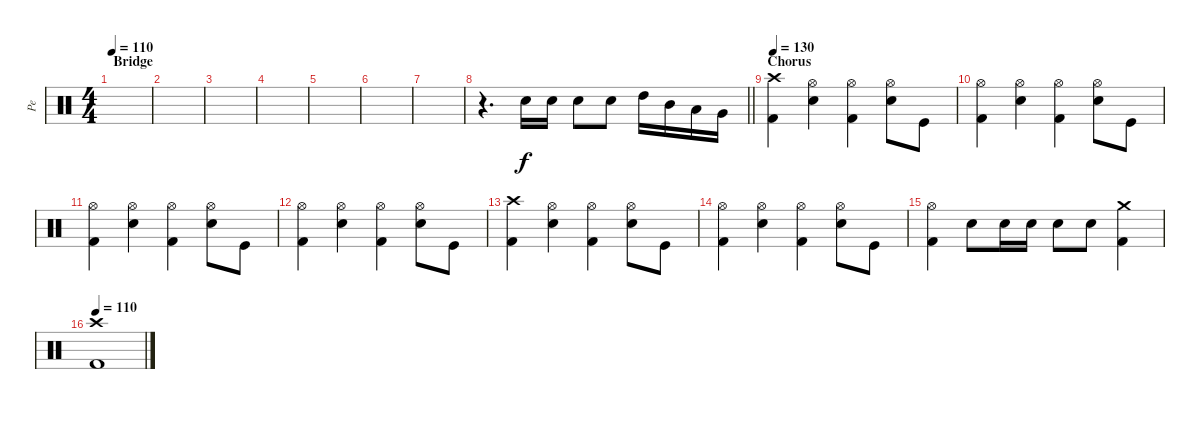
\track ("Pe" "Pe") {instrument percussion}
\staff {score}
\articulation defaults
\ts (4 4)
\section ("" "Bridge")
\tempo 110
\clef neutral
\ks c
|
|
|
|
|
|
|
\barLineRight lightlight
r.4{d volume 13} "Electric Snare (hit)".16 "Electric Snare (hit)".16 "Electric Snare (hit)".8 "Electric Snare (hit)".8 "High Tom (hit)".16 "Mid Tom (hit)".16 "Low Tom (hit)".16 "Very Low Tom (hit)".16 |
\section ("" "Chorus")
\tempo 130
("Kick (hit) 2" "Crash high (hit)").4 ("Electric Snare (hit)" "Hi-Hat (open)").4 ("Kick (hit) 2" "Hi-Hat (open)").4 ("Electric Snare (hit)" "Hi-Hat (open)").8 "Kick (hit)".8 |
("Kick (hit) 2" "Hi-Hat (open)").4 ("Electric Snare (hit)" "Hi-Hat (open)").4 ("Kick (hit) 2" "Hi-Hat (open)").4 ("Electric Snare (hit)" "Hi-Hat (open)").8 "Kick (hit)".8 |
("Kick (hit) 2" "Hi-Hat (open)").4 ("Electric Snare (hit)" "Hi-Hat (open)").4 ("Kick (hit) 2" "Hi-Hat (open)").4 ("Electric Snare (hit)" "Hi-Hat (open)").8 "Kick (hit)".8 |
("Kick (hit) 2" "Hi-Hat (open)").4 ("Electric Snare (hit)" "Hi-Hat (open)").4 ("Kick (hit) 2" "Hi-Hat (open)").4 ("Electric Snare (hit)" "Hi-Hat (open)").8 "Kick (hit)".8 |
("Kick (hit) 2" "Crash high (hit)").4 ("Electric Snare (hit)" "Hi-Hat (open)").4 ("Kick (hit) 2" "Hi-Hat (open)").4 ("Electric Snare (hit)" "Hi-Hat (open)").8 "Kick (hit)".8 |
("Kick (hit) 2" "Hi-Hat (open)").4 ("Electric Snare (hit)" "Hi-Hat (open)").4 ("Kick (hit) 2" "Hi-Hat (open)").4 ("Electric Snare (hit)" "Hi-Hat (open)").8 "Kick (hit)".8 |
("Kick (hit) 2" "Hi-Hat (open)").4 "Electric Snare (hit)".8 "Electric Snare (hit)".16 "Electric Snare (hit)".16 "Electric Snare (hit)".8 "Electric Snare (hit)".8 ("Kick (hit) 2" "Crash medium (hit)").4 |
\tempo 110
("Kick (hit) 2" "Crash high (hit)").1
